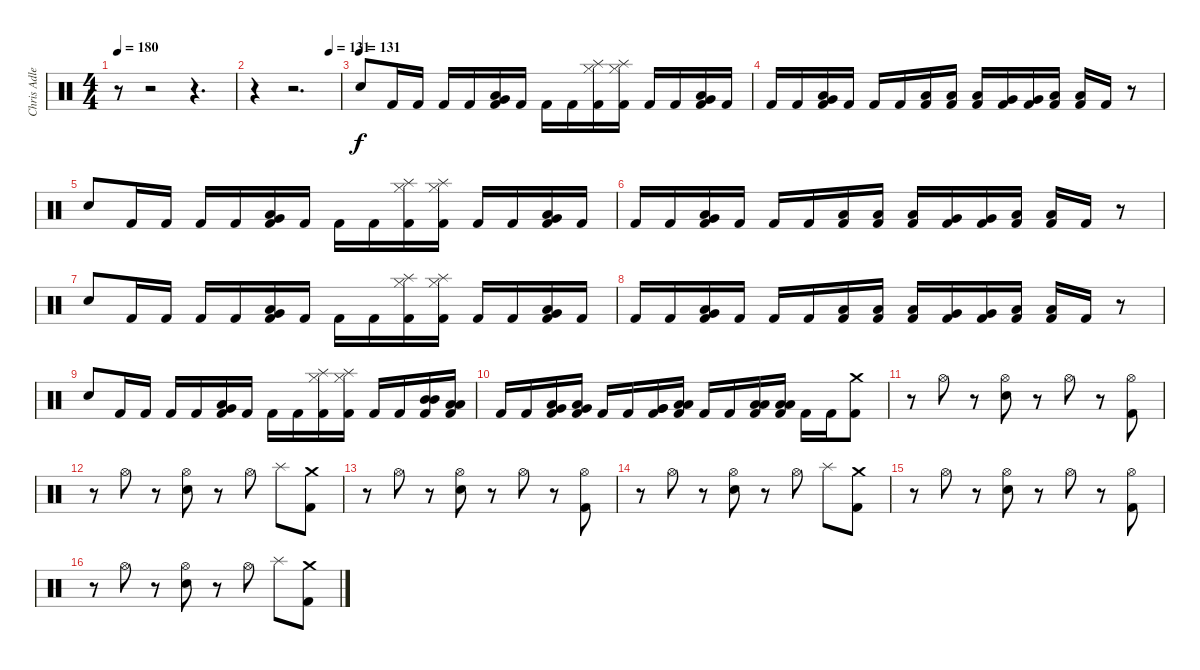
\track ("Chris Adler - Drums" "Chris Adle") {instrument percussion}
\staff {score}
\articulation defaults
\ts (4 4)
\tempo 180
\clef neutral
\ks c
r.8{dy f} r.2 r.4{d} |
\tempo (131 0.875)
r.4 r.2{d} |
\tempo (131)
"Snare (hit) 2".8 "Kick (hit) 2".16 "Kick (hit) 2".16 "Kick (hit) 2".16 "Kick (hit) 2".16 ("Very Low Tom (hit)" "Low Floor Tom (hit)" "Kick (hit) 2").16 "Kick (hit) 2".16 "Kick (hit) 2".16 "Kick (hit) 2".16 ("Splash (hit)" "Hi-Hat (closed)" "Kick (hit) 2").16 ("Splash (hit)" "Hi-Hat (closed)" "Kick (hit) 2").16 "Kick (hit) 2".16 "Kick (hit) 2".16 ("Very Low Tom (hit)" "Low Floor Tom (hit)" "Kick (hit) 2").16 "Kick (hit) 2".16 |
"Kick (hit) 2".16 "Kick (hit) 2".16 ("Very Low Tom (hit)" "Low Floor Tom (hit)" "Kick (hit) 2").16 "Kick (hit) 2".16 "Kick (hit) 2".16 "Kick (hit) 2".16 ("Low Floor Tom (hit)" "Kick (hit) 2").16 ("Low Floor Tom (hit)" "Kick (hit) 2").16 ("Low Floor Tom (hit)" "Kick (hit) 2").16 ("Very Low Tom (hit)" "Kick (hit) 2").16 ("Very Low Tom (hit)" "Kick (hit) 2").16 ("Low Tom (hit)" "Kick (hit) 2").16 ("Low Tom (hit)" "Kick (hit) 2").16 "Kick (hit) 2".16 r.8 |
"Snare (hit) 2".8 "Kick (hit) 2".16 "Kick (hit) 2".16 "Kick (hit) 2".16 "Kick (hit) 2".16 ("Very Low Tom (hit)" "Low Floor Tom (hit)" "Kick (hit) 2").16 "Kick (hit) 2".16 "Kick (hit) 2".16 "Kick (hit) 2".16 ("Splash (hit)" "Hi-Hat (closed)" "Kick (hit) 2").16 ("Splash (hit)" "Hi-Hat (closed)" "Kick (hit) 2").16 "Kick (hit) 2".16 "Kick (hit) 2".16 ("Very Low Tom (hit)" "Low Floor Tom (hit)" "Kick (hit) 2").16 "Kick (hit) 2".16 |
"Kick (hit) 2".16 "Kick (hit) 2".16 ("Very Low Tom (hit)" "Low Floor Tom (hit)" "Kick (hit) 2").16 "Kick (hit) 2".16 "Kick (hit) 2".16 "Kick (hit) 2".16 ("Low Floor Tom (hit)" "Kick (hit) 2").16 ("Low Floor Tom (hit)" "Kick (hit) 2").16 ("Low Floor Tom (hit)" "Kick (hit) 2").16 ("Very Low Tom (hit)" "Kick (hit) 2").16 ("Very Low Tom (hit)" "Kick (hit) 2").16 ("Low Tom (hit)" "Kick (hit) 2").16 ("Low Tom (hit)" "Kick (hit) 2").16 "Kick (hit) 2".16 r.8 |
"Snare (hit) 2".8 "Kick (hit) 2".16 "Kick (hit) 2".16 "Kick (hit) 2".16 "Kick (hit) 2".16 ("Very Low Tom (hit)" "Low Floor Tom (hit)" "Kick (hit) 2").16 "Kick (hit) 2".16 "Kick (hit) 2".16 "Kick (hit) 2".16 ("Splash (hit)" "Hi-Hat (closed)" "Kick (hit) 2").16 ("Splash (hit)" "Hi-Hat (closed)" "Kick (hit) 2").16 "Kick (hit) 2".16 "Kick (hit) 2".16 ("Very Low Tom (hit)" "Low Floor Tom (hit)" "Kick (hit) 2").16 "Kick (hit) 2".16 |
"Kick (hit) 2".16 "Kick (hit) 2".16 ("Very Low Tom (hit)" "Low Floor Tom (hit)" "Kick (hit) 2").16 "Kick (hit) 2".16 "Kick (hit) 2".16 "Kick (hit) 2".16 ("Low Floor Tom (hit)" "Kick (hit) 2").16 ("Low Floor Tom (hit)" "Kick (hit) 2").16 ("Low Floor Tom (hit)" "Kick (hit) 2").16 ("Very Low Tom (hit)" "Kick (hit) 2").16 ("Very Low Tom (hit)" "Kick (hit) 2").16 ("Low Tom (hit)" "Kick (hit) 2").16 ("Low Tom (hit)" "Kick (hit) 2").16 "Kick (hit) 2".16 r.8 |
"Snare (hit) 2".8 "Kick (hit) 2".16 "Kick (hit) 2".16 "Kick (hit) 2".16 "Kick (hit) 2".16 ("Very Low Tom (hit)" "Low Floor Tom (hit)" "Kick (hit) 2").16 "Kick (hit) 2".16 "Kick (hit) 2".16 "Kick (hit) 2".16 ("Splash (hit)" "Hi-Hat (closed)" "Kick (hit) 2").16 ("Splash (hit)" "Hi-Hat (closed)" "Kick (hit) 2").16 "Kick (hit) 2".16 "Kick (hit) 2".16 ("Mid Tom (hit)" "Mid Tom (hit)" "Kick (hit) 2").16 ("Low Tom (hit)" "Low Tom (hit)" "Kick (hit) 2").16 |
"Kick (hit) 2".16 "Kick (hit) 2".16 ("Very Low Tom (hit)" "Low Tom (hit)" "Kick (hit) 2").16 ("Very Low Tom (hit)" "Low Tom (hit)" "Kick (hit) 2").16 "Kick (hit) 2".16 "Kick (hit) 2".16 ("Very Low Tom (hit)" "Very Low Tom (hit)" "Kick (hit) 2").16 ("Low Floor Tom (hit)" "Low Floor Tom (hit)" "Kick (hit) 2").16 "Kick (hit) 2".16 "Kick (hit) 2".16 ("Low Floor Tom (hit)" "Low Floor Tom (hit)" "Kick (hit) 2").16 ("Low Floor Tom (hit)" "Low Floor Tom (hit)" "Kick (hit) 2").16 "Kick (hit) 2".16 "Kick (hit) 2".16 ("Crash medium (hit)" "Kick (hit) 2").8 |
r.8 "Hi-Hat (open)".8 r.8 ("Hi-Hat (open)" "Snare (hit) 2").8 r.8 "Hi-Hat (open)".8 r.8 ("Hi-Hat (open)" "Kick (hit) 2").8 |
r.8 "Hi-Hat (open)".8 r.8 ("Hi-Hat (open)" "Snare (hit) 2").8 r.8 "Hi-Hat (open)".8 "Splash (hit)".8 ("Crash medium (hit)" "Kick (hit) 2").8 |
r.8 "Hi-Hat (open)".8 r.8 ("Hi-Hat (open)" "Snare (hit) 2").8 r.8 "Hi-Hat (open)".8 r.8 ("Hi-Hat (open)" "Kick (hit) 2").8 |
r.8 "Hi-Hat (open)".8 r.8 ("Hi-Hat (open)" "Snare (hit) 2").8 r.8 "Hi-Hat (open)".8 "Splash (hit)".8 ("Crash medium (hit)" "Kick (hit) 2").8 |
r.8 "Hi-Hat (open)".8 r.8 ("Hi-Hat (open)" "Snare (hit) 2").8 r.8 "Hi-Hat (open)".8 r.8 ("Hi-Hat (open)" "Kick (hit) 2").8 |
r.8 "Hi-Hat (open)".8 r.8 ("Hi-Hat (open)" "Snare (hit) 2").8 r.8 "Hi-Hat (open)".8 "Splash (hit)".8 ("Crash medium (hit)" "Kick (hit) 2").8
